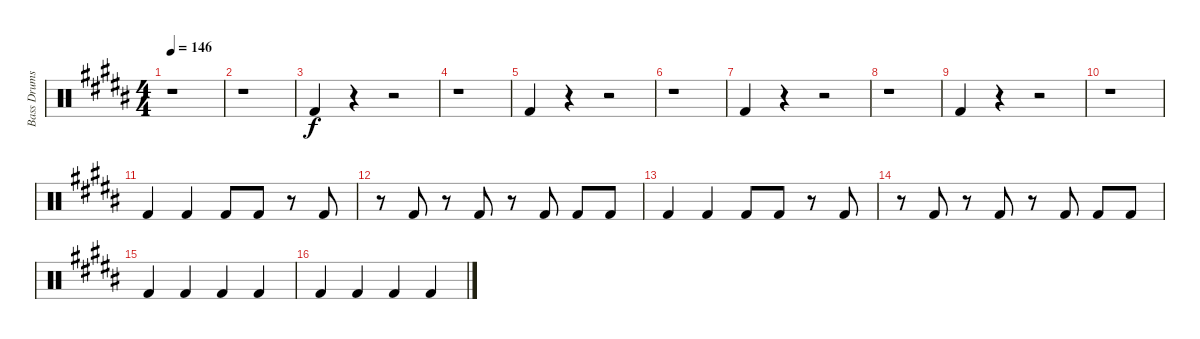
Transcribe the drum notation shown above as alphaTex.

\track ("Bass Drums" "Bass Drums") {instrument percussion}
\staff {score}
\articulation defaults
\ts (4 4)
\tempo 146
\clef neutral
\ks b
r.1{dy f} |
r.1 |
"Kick (hit) 2".4 r.4 r.2 |
r.1 |
"Kick (hit) 2".4 r.4 r.2 |
r.1 |
"Kick (hit) 2".4 r.4 r.2 |
r.1 |
"Kick (hit) 2".4 r.4 r.2 |
r.1 |
"Kick (hit) 2".4 "Kick (hit) 2".4 "Kick (hit) 2".8 "Kick (hit) 2".8 r.8 "Kick (hit) 2".8 |
r.8 "Kick (hit) 2".8 r.8 "Kick (hit) 2".8 r.8 "Kick (hit) 2".8 "Kick (hit) 2".8 "Kick (hit) 2".8 |
"Kick (hit) 2".4 "Kick (hit) 2".4 "Kick (hit) 2".8 "Kick (hit) 2".8 r.8 "Kick (hit) 2".8 |
r.8 "Kick (hit) 2".8 r.8 "Kick (hit) 2".8 r.8 "Kick (hit) 2".8 "Kick (hit) 2".8 "Kick (hit) 2".8 |
"Kick (hit) 2".4 "Kick (hit) 2".4 "Kick (hit) 2".4 "Kick (hit) 2".4 |
"Kick (hit) 2".4 "Kick (hit) 2".4 "Kick (hit) 2".4 "Kick (hit) 2".4
